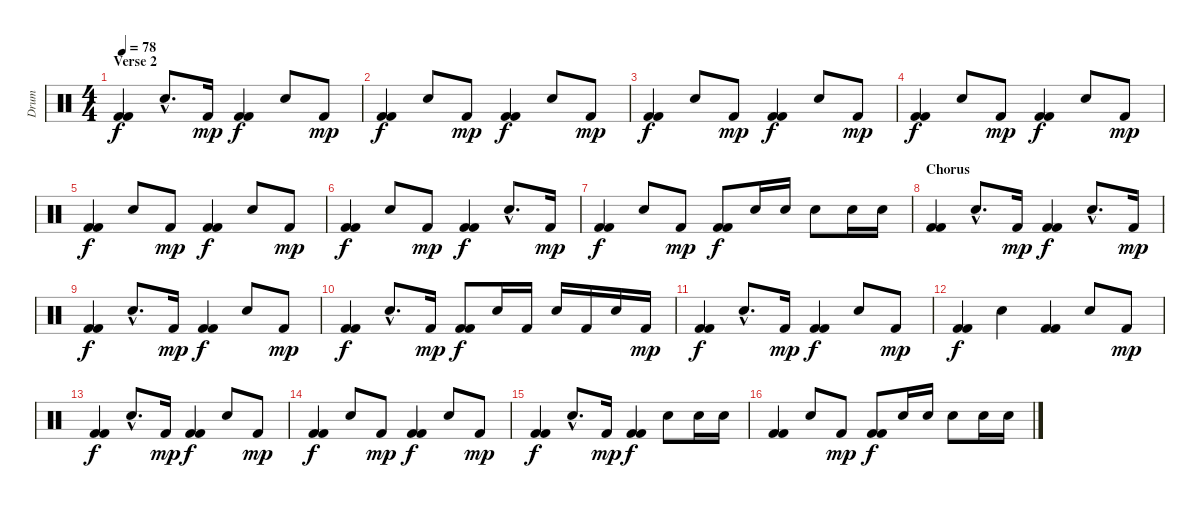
\track ("Drum" "Drum") {instrument percussion}
\staff {score}
\articulation defaults
\ts (4 4)
\section ("" "Verse 2")
\tempo 78
\clef neutral
\ks c
("Kick (hit) 2" "Kick (hit) 2").4{dy f} "Electric Snare (hit)"{hac}.8{d} "Kick (hit) 2".16{dy mp} ("Kick (hit) 2" "Kick (hit) 2").4{dy f} "Electric Snare (hit)".8 "Kick (hit) 2".8{dy mp} |
("Kick (hit) 2" "Kick (hit) 2").4{dy f} "Electric Snare (hit)".8 "Kick (hit) 2".8{dy mp} ("Kick (hit) 2" "Kick (hit) 2").4{dy f} "Electric Snare (hit)".8 "Kick (hit) 2".8{dy mp} |
("Kick (hit) 2" "Kick (hit) 2").4{dy f} "Electric Snare (hit)".8 "Kick (hit) 2".8{dy mp} ("Kick (hit) 2" "Kick (hit) 2").4{dy f} "Electric Snare (hit)".8 "Kick (hit) 2".8{dy mp} |
("Kick (hit) 2" "Kick (hit) 2").4{dy f} "Electric Snare (hit)".8 "Kick (hit) 2".8{dy mp} ("Kick (hit) 2" "Kick (hit) 2").4{dy f} "Electric Snare (hit)".8 "Kick (hit) 2".8{dy mp} |
("Kick (hit) 2" "Kick (hit) 2").4{dy f} "Electric Snare (hit)".8 "Kick (hit) 2".8{dy mp} ("Kick (hit) 2" "Kick (hit) 2").4{dy f} "Electric Snare (hit)".8 "Kick (hit) 2".8{dy mp} |
("Kick (hit) 2" "Kick (hit) 2").4{dy f} "Electric Snare (hit)".8 "Kick (hit) 2".8{dy mp} ("Kick (hit) 2" "Kick (hit) 2").4{dy f} "Electric Snare (hit)"{hac}.8{d} "Kick (hit) 2".16{dy mp} |
("Kick (hit) 2" "Kick (hit) 2").4{dy f} "Electric Snare (hit)".8 "Kick (hit) 2".8{dy mp} ("Kick (hit) 2" "Kick (hit) 2").8{dy f} "Electric Snare (hit)".16 "Electric Snare (hit)".16 "Electric Snare (hit)".8 "Electric Snare (hit)".16 "Electric Snare (hit)".16 |
\section ("" "Chorus")
("Kick (hit) 2" "Kick (hit) 2").4 "Electric Snare (hit)"{hac}.8{d} "Kick (hit) 2".16{dy mp} ("Kick (hit) 2" "Kick (hit) 2").4{dy f} "Electric Snare (hit)"{hac}.8{d} "Kick (hit) 2".16{dy mp} |
("Kick (hit) 2" "Kick (hit) 2").4{dy f} "Electric Snare (hit)"{hac}.8{d} "Kick (hit) 2".16{dy mp} ("Kick (hit) 2" "Kick (hit) 2").4{dy f} "Electric Snare (hit)".8 "Kick (hit) 2".8{dy mp} |
("Kick (hit) 2" "Kick (hit) 2").4{dy f} "Electric Snare (hit)"{hac}.8{d} "Kick (hit) 2".16{dy mp} ("Kick (hit) 2" "Kick (hit) 2").8{dy f} "Electric Snare (hit)".16 "Kick (hit) 2".16 "Electric Snare (hit)".16 "Kick (hit) 2".16 "Electric Snare (hit)".16 "Kick (hit) 2".16{dy mp} |
("Kick (hit) 2" "Kick (hit) 2").4{dy f} "Electric Snare (hit)"{hac}.8{d} "Kick (hit) 2".16{dy mp} ("Kick (hit) 2" "Kick (hit) 2").4{dy f} "Electric Snare (hit)".8 "Kick (hit) 2".8{dy mp} |
("Kick (hit) 2" "Kick (hit) 2").4{dy f} "Electric Snare (hit)".4 ("Kick (hit) 2" "Kick (hit) 2").4 "Electric Snare (hit)".8 "Kick (hit) 2".8{dy mp} |
("Kick (hit) 2" "Kick (hit) 2").4{dy f} "Electric Snare (hit)"{hac}.8{d} "Kick (hit) 2".16{dy mp} ("Kick (hit) 2" "Kick (hit) 2").4{dy f} "Electric Snare (hit)".8 "Kick (hit) 2".8{dy mp} |
("Kick (hit) 2" "Kick (hit) 2").4{dy f} "Electric Snare (hit)".8 "Kick (hit) 2".8{dy mp} ("Kick (hit) 2" "Kick (hit) 2").4{dy f} "Electric Snare (hit)".8 "Kick (hit) 2".8{dy mp} |
("Kick (hit) 2" "Kick (hit) 2").4{dy f} "Electric Snare (hit)"{hac}.8{d} "Kick (hit) 2".16{dy mp} ("Kick (hit) 2" "Kick (hit) 2").4{dy f} "Electric Snare (hit)".8 "Electric Snare (hit)".16 "Electric Snare (hit)".16 |
("Kick (hit) 2" "Kick (hit) 2").4 "Electric Snare (hit)".8 "Kick (hit) 2".8{dy mp} ("Kick (hit) 2" "Kick (hit) 2").8{dy f} "Electric Snare (hit)".16 "Electric Snare (hit)".16 "Electric Snare (hit)".8 "Electric Snare (hit)".16 "Electric Snare (hit)".16
